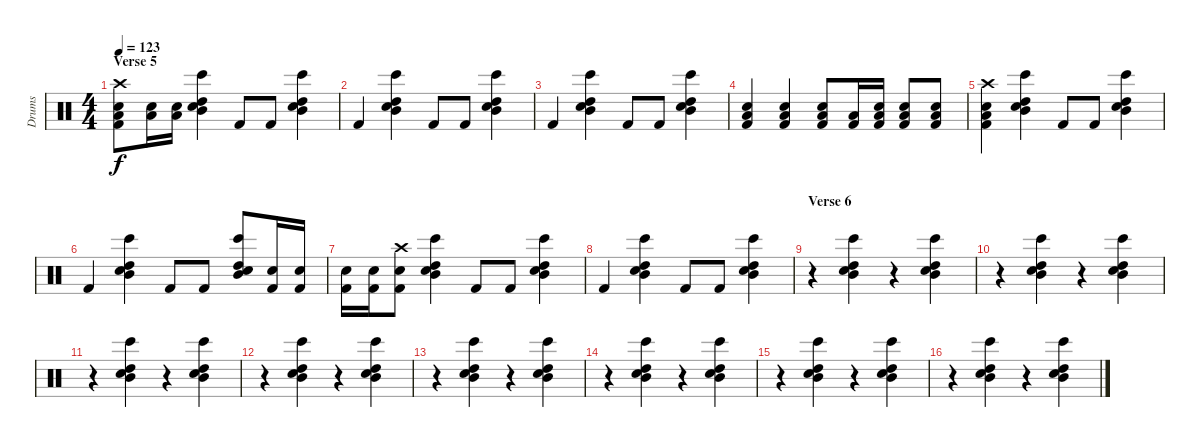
\track ("Drums" "Drums") {instrument percussion}
\staff {score}
\articulation defaults
\ts (4 4)
\section ("" "Verse 5")
\tempo 123
\clef neutral
\ks c
("Crash high (hit)" "Snare (hit) 2" "Low Floor Tom (hit)" "Kick (hit) 2").8{dy f} ("Snare (hit) 2" "Low Floor Tom (hit)").16 ("Snare (hit) 2" "Low Floor Tom (hit)").16 ("Bongo High (hit)" "High Tom (hit)" "Mid Tom (hit)" "Snare (hit) 2").4 "Kick (hit) 2".8 "Kick (hit) 2".8 ("Bongo High (hit)" "High Tom (hit)" "Mid Tom (hit)" "Snare (hit) 2").4 |
"Kick (hit) 2".4 ("Bongo High (hit)" "High Tom (hit)" "Mid Tom (hit)" "Snare (hit) 2").4 "Kick (hit) 2".8 "Kick (hit) 2".8 ("Bongo High (hit)" "High Tom (hit)" "Mid Tom (hit)" "Snare (hit) 2").4 |
"Kick (hit) 2".4 ("Bongo High (hit)" "High Tom (hit)" "Mid Tom (hit)" "Snare (hit) 2").4 "Kick (hit) 2".8 "Kick (hit) 2".8 ("Bongo High (hit)" "High Tom (hit)" "Mid Tom (hit)" "Snare (hit) 2").4 |
("Snare (hit) 2" "Low Floor Tom (hit)" "Kick (hit) 2").4 ("Snare (hit) 2" "Low Floor Tom (hit)" "Kick (hit) 2").4 ("Snare (hit) 2" "Low Floor Tom (hit)" "Kick (hit) 2").8 ("Low Floor Tom (hit)" "Kick (hit) 2").16 ("Snare (hit) 2" "Low Floor Tom (hit)" "Kick (hit) 2").16 ("Snare (hit) 2" "Low Floor Tom (hit)" "Kick (hit) 2").8 ("Snare (hit) 2" "Low Floor Tom (hit)" "Kick (hit) 2").8 |
("Crash high (hit)" "Snare (hit) 2" "Low Floor Tom (hit)" "Kick (hit) 2").4 ("Bongo High (hit)" "High Tom (hit)" "Mid Tom (hit)" "Snare (hit) 2").4 "Kick (hit) 2".8 "Kick (hit) 2".8 ("Bongo High (hit)" "High Tom (hit)" "Mid Tom (hit)" "Snare (hit) 2").4 |
"Kick (hit) 2".4 ("Bongo High (hit)" "High Tom (hit)" "Mid Tom (hit)" "Snare (hit) 2").4 "Kick (hit) 2".8 "Kick (hit) 2".8 ("Bongo High (hit)" "High Tom (hit)" "Mid Tom (hit)" "Snare (hit) 2").8 ("Snare (hit) 2" "Kick (hit) 2").16 ("Snare (hit) 2" "Kick (hit) 2").16 |
("Snare (hit) 2" "Kick (hit) 2").16 ("Snare (hit) 2" "Kick (hit) 2").16 ("Crash high (hit)" "Snare (hit) 2" "Kick (hit) 2").8 ("Bongo High (hit)" "High Tom (hit)" "Mid Tom (hit)" "Snare (hit) 2").4 "Kick (hit) 2".8 "Kick (hit) 2".8 ("Bongo High (hit)" "High Tom (hit)" "Mid Tom (hit)" "Snare (hit) 2").4 |
"Kick (hit) 2".4 ("Bongo High (hit)" "High Tom (hit)" "Mid Tom (hit)" "Snare (hit) 2").4 "Kick (hit) 2".8 "Kick (hit) 2".8 ("Bongo High (hit)" "High Tom (hit)" "Mid Tom (hit)" "Snare (hit) 2").4 |
\section ("" "Verse 6")
r.4 ("Bongo High (hit)" "High Tom (hit)" "Mid Tom (hit)" "Snare (hit) 2").4 r.4 ("Bongo High (hit)" "High Tom (hit)" "Mid Tom (hit)" "Snare (hit) 2").4 |
r.4 ("Bongo High (hit)" "High Tom (hit)" "Mid Tom (hit)" "Snare (hit) 2").4 r.4 ("Bongo High (hit)" "High Tom (hit)" "Mid Tom (hit)" "Snare (hit) 2").4 |
r.4 ("Bongo High (hit)" "High Tom (hit)" "Mid Tom (hit)" "Snare (hit) 2").4 r.4 ("Bongo High (hit)" "High Tom (hit)" "Mid Tom (hit)" "Snare (hit) 2").4 |
r.4 ("Bongo High (hit)" "High Tom (hit)" "Mid Tom (hit)" "Snare (hit) 2").4 r.4 ("Bongo High (hit)" "High Tom (hit)" "Mid Tom (hit)" "Snare (hit) 2").4 |
r.4 ("Bongo High (hit)" "High Tom (hit)" "Mid Tom (hit)" "Snare (hit) 2").4 r.4 ("Bongo High (hit)" "High Tom (hit)" "Mid Tom (hit)" "Snare (hit) 2").4 |
r.4 ("Bongo High (hit)" "High Tom (hit)" "Mid Tom (hit)" "Snare (hit) 2").4 r.4 ("Bongo High (hit)" "High Tom (hit)" "Mid Tom (hit)" "Snare (hit) 2").4 |
r.4 ("Bongo High (hit)" "High Tom (hit)" "Mid Tom (hit)" "Snare (hit) 2").4 r.4 ("Bongo High (hit)" "High Tom (hit)" "Mid Tom (hit)" "Snare (hit) 2").4 |
r.4 ("Bongo High (hit)" "High Tom (hit)" "Mid Tom (hit)" "Snare (hit) 2").4 r.4 ("Bongo High (hit)" "High Tom (hit)" "Mid Tom (hit)" "Snare (hit) 2").4
